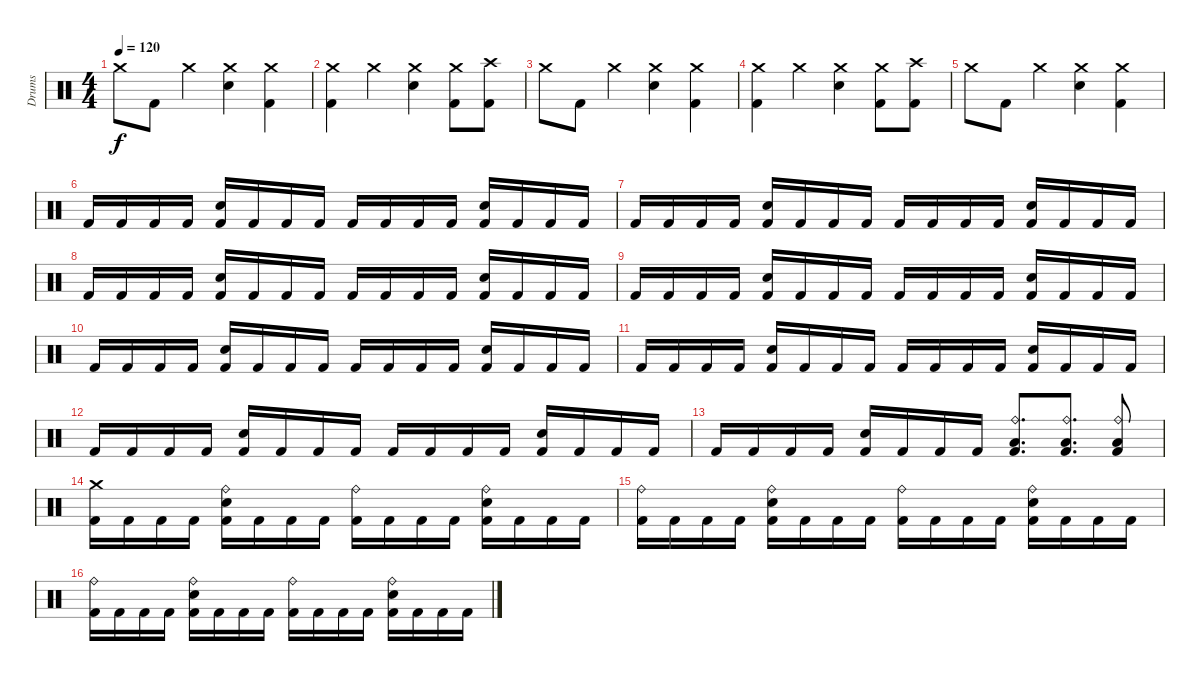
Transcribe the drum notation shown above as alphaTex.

\track ("Drums" "Drums") {instrument percussion}
\staff {score}
\articulation defaults
\ts (4 4)
\tempo 120
\clef neutral
\ks c "Crash medium (hit)".8{dy f} "Kick (hit) 2".8 "Crash medium (hit)".4
("Crash medium (hit)" "Electric Snare (hit)").4 ("Crash medium (hit)" "Kick (hit) 2").4 |
("Crash medium (hit)" "Kick (hit) 2").4 "Crash medium (hit)".4 ("Crash medium (hit)" "Electric Snare (hit)").4 ("Crash medium (hit)" "Kick (hit) 2").8 ("Crash high (hit)" "Kick (hit) 2").8 |
"Crash medium (hit)".8 "Kick (hit) 2".8 "Crash medium (hit)".4 ("Crash medium (hit)" "Electric Snare (hit)").4 ("Crash medium (hit)" "Kick (hit) 2").4 |
("Crash medium (hit)" "Kick (hit) 2").4 "Crash medium (hit)".4 ("Crash medium (hit)" "Electric Snare (hit)").4 ("Crash medium (hit)" "Kick (hit) 2").8 ("Crash high (hit)" "Kick (hit) 2").8 |
"Crash medium (hit)".8 "Kick (hit) 2".8 "Crash medium (hit)".4 ("Crash medium (hit)" "Electric Snare (hit)").4 ("Crash medium (hit)" "Kick (hit) 2").4 |
"Kick (hit) 2".16 "Kick (hit) 2".16 "Kick (hit) 2".16 "Kick (hit) 2".16 ("Electric Snare (hit)" "Kick (hit) 2").16 "Kick (hit) 2".16 "Kick (hit) 2".16 "Kick (hit) 2".16 "Kick (hit) 2".16 "Kick (hit) 2".16 "Kick (hit) 2".16 "Kick (hit) 2".16 ("Electric Snare (hit)" "Kick (hit) 2").16 "Kick (hit) 2".16 "Kick (hit) 2".16 "Kick (hit) 2".16 |
"Kick (hit) 2".16 "Kick (hit) 2".16 "Kick (hit) 2".16 "Kick (hit) 2".16 ("Electric Snare (hit)" "Kick (hit) 2").16 "Kick (hit) 2".16 "Kick (hit) 2".16 "Kick (hit) 2".16 "Kick (hit) 2".16 "Kick (hit) 2".16 "Kick (hit) 2".16 "Kick (hit) 2".16 ("Electric Snare (hit)" "Kick (hit) 2").16 "Kick (hit) 2".16 "Kick (hit) 2".16 "Kick (hit) 2".16 |
"Kick (hit) 2".16 "Kick (hit) 2".16 "Kick (hit) 2".16 "Kick (hit) 2".16 ("Electric Snare (hit)" "Kick (hit) 2").16 "Kick (hit) 2".16 "Kick (hit) 2".16 "Kick (hit) 2".16 "Kick (hit) 2".16 "Kick (hit) 2".16 "Kick (hit) 2".16 "Kick (hit) 2".16 ("Electric Snare (hit)" "Kick (hit) 2").16 "Kick (hit) 2".16 "Kick (hit) 2".16 "Kick (hit) 2".16 |
"Kick (hit) 2".16 "Kick (hit) 2".16 "Kick (hit) 2".16 "Kick (hit) 2".16 ("Electric Snare (hit)" "Kick (hit) 2").16 "Kick (hit) 2".16 "Kick (hit) 2".16 "Kick (hit) 2".16 "Kick (hit) 2".16 "Kick (hit) 2".16 "Kick (hit) 2".16 "Kick (hit) 2".16 ("Electric Snare (hit)" "Kick (hit) 2").16 "Kick (hit) 2".16 "Kick (hit) 2".16 "Kick (hit) 2".16 |
"Kick (hit) 2".16 "Kick (hit) 2".16 "Kick (hit) 2".16 "Kick (hit) 2".16 ("Electric Snare (hit)" "Kick (hit) 2").16 "Kick (hit) 2".16 "Kick (hit) 2".16 "Kick (hit) 2".16 "Kick (hit) 2".16 "Kick (hit) 2".16 "Kick (hit) 2".16 "Kick (hit) 2".16 ("Electric Snare (hit)" "Kick (hit) 2").16 "Kick (hit) 2".16 "Kick (hit) 2".16 "Kick (hit) 2".16 |
"Kick (hit) 2".16 "Kick (hit) 2".16 "Kick (hit) 2".16 "Kick (hit) 2".16 ("Electric Snare (hit)" "Kick (hit) 2").16 "Kick (hit) 2".16 "Kick (hit) 2".16 "Kick (hit) 2".16 "Kick (hit) 2".16 "Kick (hit) 2".16 "Kick (hit) 2".16 "Kick (hit) 2".16 ("Electric Snare (hit)" "Kick (hit) 2").16 "Kick (hit) 2".16 "Kick (hit) 2".16 "Kick (hit) 2".16 |
"Kick (hit) 2".16 "Kick (hit) 2".16 "Kick (hit) 2".16 "Kick (hit) 2".16 ("Electric Snare (hit)" "Kick (hit) 2").16 "Kick (hit) 2".16 "Kick (hit) 2".16 "Kick (hit) 2".16 "Kick (hit) 2".16 "Kick (hit) 2".16 "Kick (hit) 2".16 "Kick (hit) 2".16 ("Electric Snare (hit)" "Kick (hit) 2").16 "Kick (hit) 2".16 "Kick (hit) 2".16 "Kick (hit) 2".16 |
"Kick (hit) 2".16 "Kick (hit) 2".16 "Kick (hit) 2".16 "Kick (hit) 2".16 ("Electric Snare (hit)" "Kick (hit) 2").16 "Kick (hit) 2".16 "Kick (hit) 2".16 "Kick (hit) 2".16 ("Ride (bell)" "Low Floor Tom (hit)" "Kick (hit) 2").8{d} ("Ride (bell)" "Low Floor Tom (hit)" "Kick (hit) 2").8{d} ("Ride (bell)" "Low Floor Tom (hit)" "Kick (hit) 2").8 |
("Crash medium (hit)" "Kick (hit) 2").16 "Kick (hit) 2".16 "Kick (hit) 2".16 "Kick (hit) 2".16 ("Ride (bell)" "Electric Snare (hit)" "Kick (hit) 2").16 "Kick (hit) 2".16 "Kick (hit) 2".16 "Kick (hit) 2".16 ("Ride (bell)" "Kick (hit) 2").16 "Kick (hit) 2".16 "Kick (hit) 2".16 "Kick (hit) 2".16 ("Ride (bell)" "Electric Snare (hit)" "Kick (hit) 2").16 "Kick (hit) 2".16 "Kick (hit) 2".16 "Kick (hit) 2".16 |
("Ride (bell)" "Kick (hit) 2").16 "Kick (hit) 2".16 "Kick (hit) 2".16 "Kick (hit) 2".16 ("Ride (bell)" "Electric Snare (hit)" "Kick (hit) 2").16 "Kick (hit) 2".16 "Kick (hit) 2".16 "Kick (hit) 2".16 ("Ride (bell)" "Kick (hit) 2").16 "Kick (hit) 2".16 "Kick (hit) 2".16 "Kick (hit) 2".16 ("Ride (bell)" "Electric Snare (hit)" "Kick (hit) 2").16 "Kick (hit) 2".16 "Kick (hit) 2".16 "Kick (hit) 2".16 |
("Ride (bell)" "Kick (hit) 2").16 "Kick (hit) 2".16 "Kick (hit) 2".16 "Kick (hit) 2".16 ("Ride (bell)" "Electric Snare (hit)" "Kick (hit) 2").16 "Kick (hit) 2".16 "Kick (hit) 2".16 "Kick (hit) 2".16 ("Ride (bell)" "Kick (hit) 2").16 "Kick (hit) 2".16 "Kick (hit) 2".16 "Kick (hit) 2".16 ("Ride (bell)" "Electric Snare (hit)" "Kick (hit) 2").16 "Kick (hit) 2".16 "Kick (hit) 2".16 "Kick (hit) 2".16
